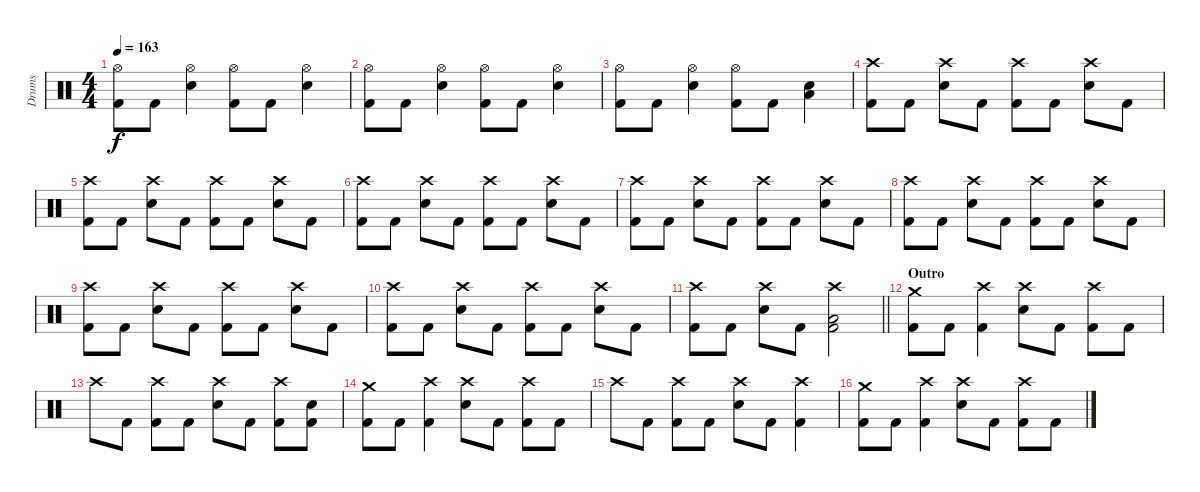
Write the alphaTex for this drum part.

\track ("Drums" "Drums") {instrument percussion}
\staff {score}
\articulation defaults
\ts (4 4)
\tempo 163
\clef neutral
\ks c
("Hi-Hat (open)" "Kick (hit) 2").8{dy f} "Kick (hit) 2".8 ("Hi-Hat (open)" "Snare (hit) 2").4 ("Hi-Hat (open)" "Kick (hit) 2").8 "Kick (hit) 2".8 ("Hi-Hat (open)" "Snare (hit) 2").4 |
("Hi-Hat (open)" "Kick (hit) 2").8 "Kick (hit) 2".8 ("Hi-Hat (open)" "Snare (hit) 2").4 ("Hi-Hat (open)" "Kick (hit) 2").8 "Kick (hit) 2".8 ("Hi-Hat (open)" "Snare (hit) 2").4 |
("Hi-Hat (open)" "Kick (hit) 2").8 "Kick (hit) 2".8 ("Hi-Hat (open)" "Snare (hit) 2").4 ("Hi-Hat (open)" "Kick (hit) 2").8 "Kick (hit) 2".8 ("Low Floor Tom (hit)" "Snare (hit) 2").4 |
("Crash high (hit)" "Kick (hit) 2").8 "Kick (hit) 2".8 ("Crash high (hit)" "Snare (hit) 2").8 "Kick (hit) 2".8 ("Crash high (hit)" "Kick (hit) 2").8 "Kick (hit) 2".8 ("Crash high (hit)" "Snare (hit) 2").8 "Kick (hit) 2".8 |
("Crash high (hit)" "Kick (hit) 2").8 "Kick (hit) 2".8 ("Crash high (hit)" "Snare (hit) 2").8 "Kick (hit) 2".8 ("Crash high (hit)" "Kick (hit) 2").8 "Kick (hit) 2".8 ("Crash high (hit)" "Snare (hit) 2").8 "Kick (hit) 2".8 |
("Crash high (hit)" "Kick (hit) 2").8 "Kick (hit) 2".8 ("Crash high (hit)" "Snare (hit) 2").8 "Kick (hit) 2".8 ("Crash high (hit)" "Kick (hit) 2").8 "Kick (hit) 2".8 ("Crash high (hit)" "Snare (hit) 2").8 "Kick (hit) 2".8 |
("Crash high (hit)" "Kick (hit) 2").8 "Kick (hit) 2".8 ("Crash high (hit)" "Snare (hit) 2").8 "Kick (hit) 2".8 ("Crash high (hit)" "Kick (hit) 2").8 "Kick (hit) 2".8 ("Crash high (hit)" "Snare (hit) 2").8 "Kick (hit) 2".8 |
("Crash high (hit)" "Kick (hit) 2").8 "Kick (hit) 2".8 ("Crash high (hit)" "Snare (hit) 2").8 "Kick (hit) 2".8 ("Crash high (hit)" "Kick (hit) 2").8 "Kick (hit) 2".8 ("Crash high (hit)" "Snare (hit) 2").8 "Kick (hit) 2".8 |
("Crash high (hit)" "Kick (hit) 2").8 "Kick (hit) 2".8 ("Crash high (hit)" "Snare (hit) 2").8 "Kick (hit) 2".8 ("Crash high (hit)" "Kick (hit) 2").8 "Kick (hit) 2".8 ("Crash high (hit)" "Snare (hit) 2").8 "Kick (hit) 2".8 |
("Crash high (hit)" "Kick (hit) 2").8 "Kick (hit) 2".8 ("Crash high (hit)" "Snare (hit) 2").8 "Kick (hit) 2".8 ("Crash high (hit)" "Kick (hit) 2").8 "Kick (hit) 2".8 ("Crash high (hit)" "Snare (hit) 2").8 "Kick (hit) 2".8 |
\barLineRight lightlight
("Crash high (hit)" "Kick (hit) 2").8 "Kick (hit) 2".8 ("Crash high (hit)" "Snare (hit) 2").8 "Kick (hit) 2".8 ("Crash high (hit)" "Low Floor Tom (hit)" "Kick (hit) 2").2 |
\section ("" "Outro")
("Crash medium (hit)" "Kick (hit) 2").8 "Kick (hit) 2".8 ("Crash high (hit)" "Kick (hit) 2").4 ("Crash high (hit)" "Snare (hit) 2").8 "Kick (hit) 2".8 ("Crash high (hit)" "Kick (hit) 2").8 "Kick (hit) 2".8 |
"Crash high (hit)".8 "Kick (hit) 2".8 ("Crash high (hit)" "Kick (hit) 2").8 "Kick (hit) 2".8 ("Crash high (hit)" "Snare (hit) 2").8 "Kick (hit) 2".8 ("Crash high (hit)" "Kick (hit) 2").8 ("Snare (hit) 2" "Kick (hit) 2").8 |
("Crash medium (hit)" "Kick (hit) 2").8 "Kick (hit) 2".8 ("Crash high (hit)" "Kick (hit) 2").4 ("Crash high (hit)" "Snare (hit) 2").8 "Kick (hit) 2".8 ("Crash high (hit)" "Kick (hit) 2").8 "Kick (hit) 2".8 |
"Crash high (hit)".8 "Kick (hit) 2".8 ("Crash high (hit)" "Kick (hit) 2").8 "Kick (hit) 2".8 ("Crash high (hit)" "Snare (hit) 2").8 "Kick (hit) 2".8 ("Crash high (hit)" "Kick (hit) 2").4 |
("Crash medium (hit)" "Kick (hit) 2").8 "Kick (hit) 2".8 ("Crash high (hit)" "Kick (hit) 2").4 ("Crash high (hit)" "Snare (hit) 2").8 "Kick (hit) 2".8 ("Crash high (hit)" "Kick (hit) 2").8 "Kick (hit) 2".8
